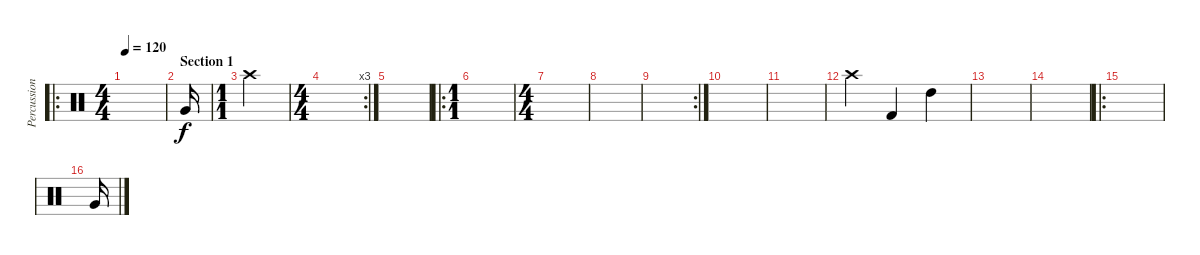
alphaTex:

\track ("Percussion" "Percussion") {instrument percussion}
\staff {score}
\articulation defaults
\ro
\ts (4 4)
\tempo 120
\clef neutral
\ks c
|
\section ("" "Section 1")
"Very Low Tom (hit)".16 |
\ts (1 1)
"Crash high (hit)".4 |
\rc 3
\ts (4 4)
|
|
\ro
\ts (1 1)
|
\ts (4 4)
|
|
\rc 2
|
|
|
"Crash high (hit)".4 "Kick (hit) 2".4 "High Tom (hit)".4 |
|
|
\ro
|
"Very Low Tom (hit)".16
